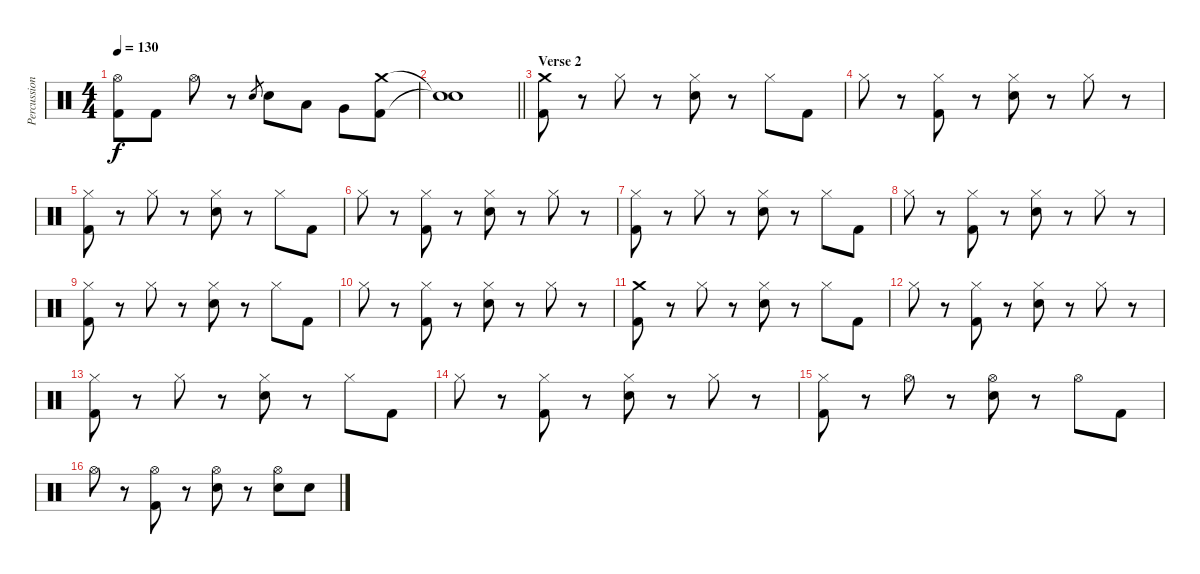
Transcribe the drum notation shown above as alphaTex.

\track ("Percussion" "Percussion") {instrument percussion}
\staff {score}
\articulation defaults
\ts (4 4)
\tempo 130
\clef neutral
\ks c
("Hi-Hat (open)" "Kick (hit) 2").8{dy f} "Kick (hit) 2".8 "Hi-Hat (open)".8 r.8 "Electric Snare (hit)".8{gr} "Electric Snare (hit)".8 "Low Tom (hit)".8 "Very Low Tom (hit)".8 ("Crash medium (hit)" "Kick (hit) 2").8 |
\barLineRight lightlight
("Snare (hit)"{t} "Snare (hit)"{t}).1 |
\section ("" "Verse 2")
("Crash medium (hit)" "Kick (hit) 2").8 r.8 "Hi-Hat (closed)".8 r.8 ("Hi-Hat (closed)" "Electric Snare (hit)").8 r.8 "Hi-Hat (closed)".8 "Kick (hit) 2".8 |
"Hi-Hat (closed)".8 r.8 ("Hi-Hat (closed)" "Kick (hit) 2").8 r.8 ("Hi-Hat (closed)" "Electric Snare (hit)").8 r.8 "Hi-Hat (closed)".8 r.8 |
("Hi-Hat (closed)" "Kick (hit) 2").8 r.8 "Hi-Hat (closed)".8 r.8 ("Hi-Hat (closed)" "Electric Snare (hit)").8 r.8 "Hi-Hat (closed)".8 "Kick (hit) 2".8 |
"Hi-Hat (closed)".8 r.8 ("Hi-Hat (closed)" "Kick (hit) 2").8 r.8 ("Hi-Hat (closed)" "Electric Snare (hit)").8 r.8 "Hi-Hat (closed)".8 r.8 |
("Hi-Hat (closed)" "Kick (hit) 2").8 r.8 "Hi-Hat (closed)".8 r.8 ("Hi-Hat (closed)" "Electric Snare (hit)").8 r.8 "Hi-Hat (closed)".8 "Kick (hit) 2".8 |
"Hi-Hat (closed)".8 r.8 ("Hi-Hat (closed)" "Kick (hit) 2").8 r.8 ("Hi-Hat (closed)" "Electric Snare (hit)").8 r.8 "Hi-Hat (closed)".8 r.8 |
("Hi-Hat (closed)" "Kick (hit) 2").8 r.8 "Hi-Hat (closed)".8 r.8 ("Hi-Hat (closed)" "Electric Snare (hit)").8 r.8 "Hi-Hat (closed)".8 "Kick (hit) 2".8 |
"Hi-Hat (closed)".8 r.8 ("Hi-Hat (closed)" "Kick (hit) 2").8 r.8 ("Hi-Hat (closed)" "Electric Snare (hit)").8 r.8 "Hi-Hat (closed)".8 r.8 |
("Crash medium (hit)" "Kick (hit) 2").8 r.8 "Hi-Hat (closed)".8 r.8 ("Hi-Hat (closed)" "Electric Snare (hit)").8 r.8 "Hi-Hat (closed)".8 "Kick (hit) 2".8 |
"Hi-Hat (closed)".8 r.8 ("Hi-Hat (closed)" "Kick (hit) 2").8 r.8 ("Hi-Hat (closed)" "Electric Snare (hit)").8 r.8 "Hi-Hat (closed)".8 r.8 |
("Hi-Hat (closed)" "Kick (hit) 2").8 r.8 "Hi-Hat (closed)".8 r.8 ("Hi-Hat (closed)" "Electric Snare (hit)").8 r.8 "Hi-Hat (closed)".8 "Kick (hit) 2".8 |
"Hi-Hat (closed)".8 r.8 ("Hi-Hat (closed)" "Kick (hit) 2").8 r.8 ("Hi-Hat (closed)" "Electric Snare (hit)").8 r.8 "Hi-Hat (closed)".8 r.8 |
("Hi-Hat (closed)" "Kick (hit) 2").8 r.8 "Hi-Hat (open)".8 r.8 ("Hi-Hat (open)" "Electric Snare (hit)").8 r.8 "Hi-Hat (open)".8 "Kick (hit) 2".8 |
"Hi-Hat (open)".8 r.8 ("Hi-Hat (open)" "Kick (hit) 2").8 r.8 ("Hi-Hat (open)" "Electric Snare (hit)").8 r.8 ("Hi-Hat (open)" "Electric Snare (hit)").8 "Electric Snare (hit)".8
